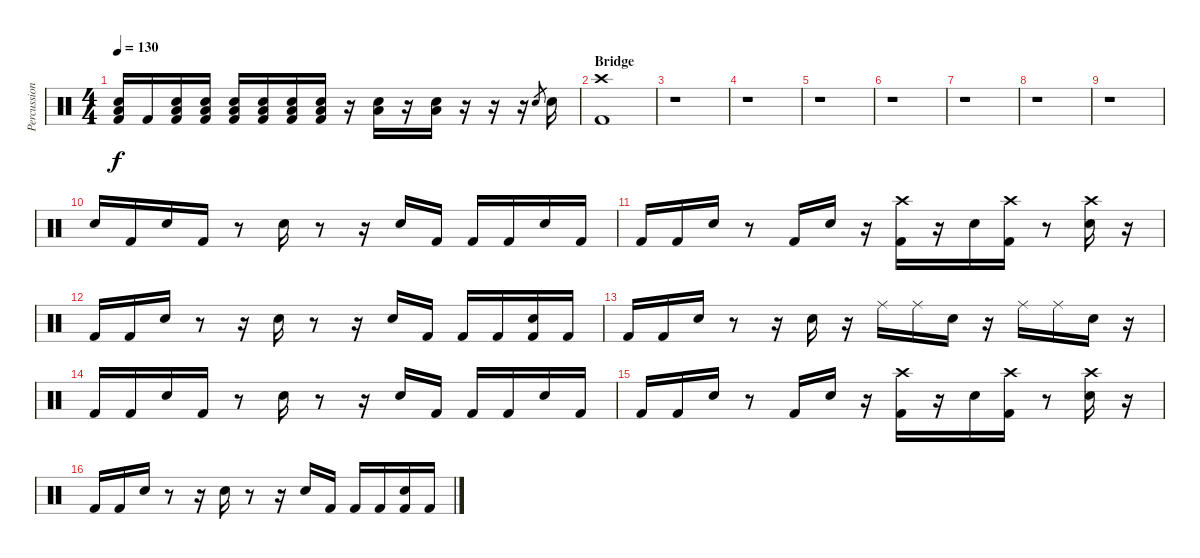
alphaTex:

\track ("Percussion" "Percussion") {instrument percussion}
\staff {score}
\articulation defaults
\ts (4 4)
\tempo 130
\clef neutral
\ks c
("Low Floor Tom (hit)" "Snare (hit) 2" "Kick (hit) 2").16{dy f} "Kick (hit) 2".16 ("Low Floor Tom (hit)" "Snare (hit) 2" "Kick (hit) 2").16 ("Low Floor Tom (hit)" "Snare (hit) 2" "Kick (hit) 2").16 ("Low Floor Tom (hit)" "Snare (hit) 2" "Kick (hit) 2").16 ("Low Floor Tom (hit)" "Snare (hit) 2" "Kick (hit) 2").16 ("Low Floor Tom (hit)" "Snare (hit) 2" "Kick (hit) 2").16 ("Low Floor Tom (hit)" "Snare (hit) 2" "Kick (hit) 2").16 r.16 ("Low Floor Tom (hit)" "Snare (hit) 2").16 r.16 ("Low Floor Tom (hit)" "Snare (hit) 2").16 r.16 r.16 r.16 "Snare (hit) 2".8{gr} "Snare (hit) 2".16 |
\section ("" "Bridge")
("Crash high (hit)" "Kick (hit) 2").1 |
r.1 |
r.1 |
r.1 |
r.1 |
r.1 |
r.1 |
r.1 |
"Snare (hit) 2".16 "Kick (hit) 2".16 "Snare (hit) 2".16 "Kick (hit) 2".16 r.8 "Snare (hit) 2".16 r.8 r.16 "Snare (hit) 2".16 "Kick (hit) 2".16 "Kick (hit) 2".16 "Kick (hit) 2".16 "Snare (hit) 2".16 "Kick (hit) 2".16 |
"Kick (hit) 2".16 "Kick (hit) 2".16 "Snare (hit) 2".16 r.8 "Kick (hit) 2".16 "Snare (hit) 2".16 r.16 ("Crash high (hit)" "Kick (hit) 2").16 r.16 "Snare (hit) 2".16 ("Crash high (hit)" "Kick (hit) 2").16 r.8 ("Crash high (hit)" "Snare (hit) 2").16 r.16 |
"Kick (hit) 2".16 "Kick (hit) 2".16 "Snare (hit) 2".16 r.8 r.16 "Snare (hit) 2".16 r.8 r.16 "Snare (hit) 2".16 "Kick (hit) 2".16 "Kick (hit) 2".16 "Kick (hit) 2".16 ("Snare (hit) 2" "Kick (hit) 2").16 "Kick (hit) 2".16 |
"Kick (hit) 2".16 "Kick (hit) 2".16 "Snare (hit) 2".16 r.8 r.16 "Snare (hit) 2".16 r.16 "Ride (middle)".16 "Ride (middle)".16 "Snare (hit) 2".16 r.16 "Ride (middle)".16 "Ride (middle)".16 "Snare (hit) 2".16 r.16 |
"Kick (hit) 2".16 "Kick (hit) 2".16 "Snare (hit) 2".16 "Kick (hit) 2".16 r.8 "Snare (hit) 2".16 r.8 r.16 "Snare (hit) 2".16 "Kick (hit) 2".16 "Kick (hit) 2".16 "Kick (hit) 2".16 "Snare (hit) 2".16 "Kick (hit) 2".16 |
"Kick (hit) 2".16 "Kick (hit) 2".16 "Snare (hit) 2".16 r.8 "Kick (hit) 2".16 "Snare (hit) 2".16 r.16 ("Crash high (hit)" "Kick (hit) 2").16 r.16 "Snare (hit) 2".16 ("Crash high (hit)" "Kick (hit) 2").16 r.8 ("Crash high (hit)" "Snare (hit) 2").16 r.16 |
"Kick (hit) 2".16 "Kick (hit) 2".16 "Snare (hit) 2".16 r.8 r.16 "Snare (hit) 2".16 r.8 r.16 "Snare (hit) 2".16 "Kick (hit) 2".16 "Kick (hit) 2".16 "Kick (hit) 2".16 ("Snare (hit) 2" "Kick (hit) 2").16 "Kick (hit) 2".16
